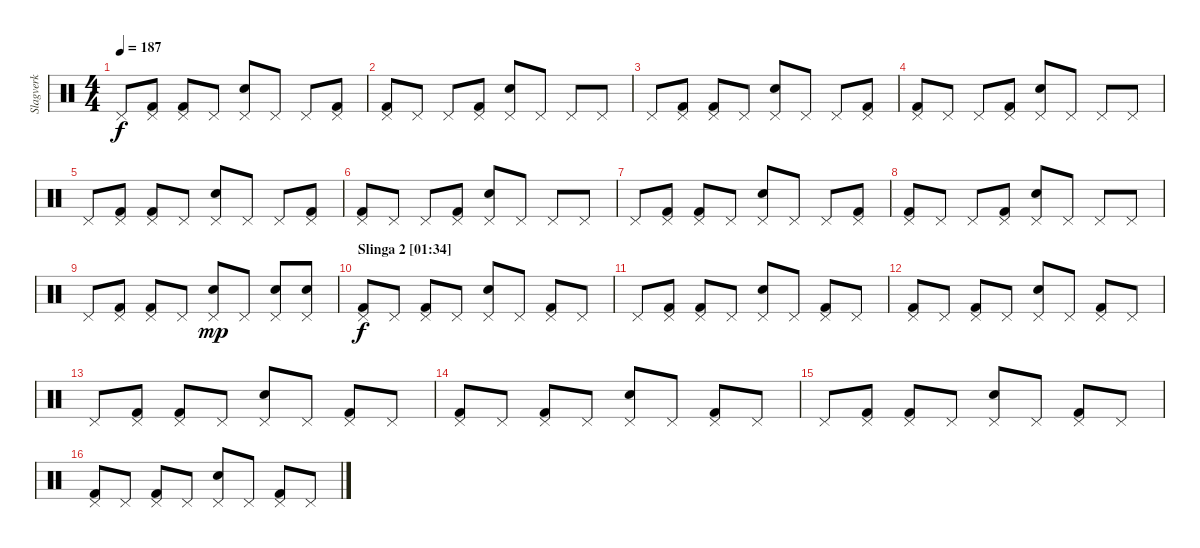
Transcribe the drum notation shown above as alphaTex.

\track ("Slagverk" "Slagverk") {instrument percussion}
\staff {score}
\articulation defaults
\ts (4 4)
\tempo 187
\clef neutral
\ks c "Pedal Hi-Hat (hit)".8{dy f}
("Pedal Hi-Hat (hit)" "Kick (hit) 2").8 ("Pedal Hi-Hat (hit)" "Kick (hit) 2").8 "Pedal Hi-Hat (hit)".8 ("Pedal Hi-Hat (hit)" "Electric Snare (hit)").8 "Pedal Hi-Hat (hit)".8 "Pedal Hi-Hat (hit)".8 ("Pedal Hi-Hat (hit)" "Kick (hit) 2").8 |
\section ("" "")
("Pedal Hi-Hat (hit)" "Kick (hit) 2").8 "Pedal Hi-Hat (hit)".8 "Pedal Hi-Hat (hit)".8 ("Pedal Hi-Hat (hit)" "Kick (hit) 2").8 ("Pedal Hi-Hat (hit)" "Electric Snare (hit)").8 "Pedal Hi-Hat (hit)".8 "Pedal Hi-Hat (hit)".8 "Pedal Hi-Hat (hit)".8 |
"Pedal Hi-Hat (hit)".8 ("Pedal Hi-Hat (hit)" "Kick (hit) 2").8 ("Pedal Hi-Hat (hit)" "Kick (hit) 2").8 "Pedal Hi-Hat (hit)".8 ("Pedal Hi-Hat (hit)" "Electric Snare (hit)").8 "Pedal Hi-Hat (hit)".8 "Pedal Hi-Hat (hit)".8 ("Pedal Hi-Hat (hit)" "Kick (hit) 2").8 |
("Pedal Hi-Hat (hit)" "Kick (hit) 2").8 "Pedal Hi-Hat (hit)".8 "Pedal Hi-Hat (hit)".8 ("Pedal Hi-Hat (hit)" "Kick (hit) 2").8 ("Pedal Hi-Hat (hit)" "Electric Snare (hit)").8 "Pedal Hi-Hat (hit)".8 "Pedal Hi-Hat (hit)".8 "Pedal Hi-Hat (hit)".8 |
"Pedal Hi-Hat (hit)".8 ("Pedal Hi-Hat (hit)" "Kick (hit) 2").8 ("Pedal Hi-Hat (hit)" "Kick (hit) 2").8 "Pedal Hi-Hat (hit)".8 ("Pedal Hi-Hat (hit)" "Electric Snare (hit)").8 "Pedal Hi-Hat (hit)".8 "Pedal Hi-Hat (hit)".8 ("Pedal Hi-Hat (hit)" "Kick (hit) 2").8 |
("Pedal Hi-Hat (hit)" "Kick (hit) 2").8 "Pedal Hi-Hat (hit)".8 "Pedal Hi-Hat (hit)".8 ("Pedal Hi-Hat (hit)" "Kick (hit) 2").8 ("Pedal Hi-Hat (hit)" "Electric Snare (hit)").8 "Pedal Hi-Hat (hit)".8 "Pedal Hi-Hat (hit)".8 "Pedal Hi-Hat (hit)".8 |
"Pedal Hi-Hat (hit)".8 ("Pedal Hi-Hat (hit)" "Kick (hit) 2").8 ("Pedal Hi-Hat (hit)" "Kick (hit) 2").8 "Pedal Hi-Hat (hit)".8 ("Pedal Hi-Hat (hit)" "Electric Snare (hit)").8 "Pedal Hi-Hat (hit)".8 "Pedal Hi-Hat (hit)".8 ("Pedal Hi-Hat (hit)" "Kick (hit) 2").8 |
("Pedal Hi-Hat (hit)" "Kick (hit) 2").8 "Pedal Hi-Hat (hit)".8 "Pedal Hi-Hat (hit)".8 ("Pedal Hi-Hat (hit)" "Kick (hit) 2").8 ("Pedal Hi-Hat (hit)" "Electric Snare (hit)").8 "Pedal Hi-Hat (hit)".8 "Pedal Hi-Hat (hit)".8 "Pedal Hi-Hat (hit)".8 |
"Pedal Hi-Hat (hit)".8 ("Pedal Hi-Hat (hit)" "Kick (hit) 2").8 ("Pedal Hi-Hat (hit)" "Kick (hit) 2").8 "Pedal Hi-Hat (hit)".8 ("Pedal Hi-Hat (hit)" "Electric Snare (hit)").8{dy mp} "Pedal Hi-Hat (hit)".8 ("Pedal Hi-Hat (hit)" "Electric Snare (hit)").8 ("Pedal Hi-Hat (hit)" "Electric Snare (hit)").8 |
\section ("" "Slinga 2 [01:34]")
("Pedal Hi-Hat (hit)" "Kick (hit) 2").8{dy f} "Pedal Hi-Hat (hit)".8 ("Pedal Hi-Hat (hit)" "Kick (hit) 2").8 "Pedal Hi-Hat (hit)".8 ("Pedal Hi-Hat (hit)" "Electric Snare (hit)").8 "Pedal Hi-Hat (hit)".8 ("Pedal Hi-Hat (hit)" "Kick (hit) 2").8 "Pedal Hi-Hat (hit)".8 |
"Pedal Hi-Hat (hit)".8 ("Pedal Hi-Hat (hit)" "Kick (hit) 2").8 ("Pedal Hi-Hat (hit)" "Kick (hit) 2").8 "Pedal Hi-Hat (hit)".8 ("Pedal Hi-Hat (hit)" "Electric Snare (hit)").8 "Pedal Hi-Hat (hit)".8 ("Pedal Hi-Hat (hit)" "Kick (hit) 2").8 "Pedal Hi-Hat (hit)".8 |
("Pedal Hi-Hat (hit)" "Kick (hit) 2").8 "Pedal Hi-Hat (hit)".8 ("Pedal Hi-Hat (hit)" "Kick (hit) 2").8 "Pedal Hi-Hat (hit)".8 ("Pedal Hi-Hat (hit)" "Electric Snare (hit)").8 "Pedal Hi-Hat (hit)".8 ("Pedal Hi-Hat (hit)" "Kick (hit) 2").8 "Pedal Hi-Hat (hit)".8 |
"Pedal Hi-Hat (hit)".8 ("Pedal Hi-Hat (hit)" "Kick (hit) 2").8 ("Pedal Hi-Hat (hit)" "Kick (hit) 2").8 "Pedal Hi-Hat (hit)".8 ("Pedal Hi-Hat (hit)" "Electric Snare (hit)").8 "Pedal Hi-Hat (hit)".8 ("Pedal Hi-Hat (hit)" "Kick (hit) 2").8 "Pedal Hi-Hat (hit)".8 |
("Pedal Hi-Hat (hit)" "Kick (hit) 2").8 "Pedal Hi-Hat (hit)".8 ("Pedal Hi-Hat (hit)" "Kick (hit) 2").8 "Pedal Hi-Hat (hit)".8 ("Pedal Hi-Hat (hit)" "Electric Snare (hit)").8 "Pedal Hi-Hat (hit)".8 ("Pedal Hi-Hat (hit)" "Kick (hit) 2").8 "Pedal Hi-Hat (hit)".8 |
"Pedal Hi-Hat (hit)".8 ("Pedal Hi-Hat (hit)" "Kick (hit) 2").8 ("Pedal Hi-Hat (hit)" "Kick (hit) 2").8 "Pedal Hi-Hat (hit)".8 ("Pedal Hi-Hat (hit)" "Electric Snare (hit)").8 "Pedal Hi-Hat (hit)".8 ("Pedal Hi-Hat (hit)" "Kick (hit) 2").8 "Pedal Hi-Hat (hit)".8 |
("Pedal Hi-Hat (hit)" "Kick (hit) 2").8 "Pedal Hi-Hat (hit)".8 ("Pedal Hi-Hat (hit)" "Kick (hit) 2").8 "Pedal Hi-Hat (hit)".8 ("Pedal Hi-Hat (hit)" "Electric Snare (hit)").8 "Pedal Hi-Hat (hit)".8 ("Pedal Hi-Hat (hit)" "Kick (hit) 2").8 "Pedal Hi-Hat (hit)".8
